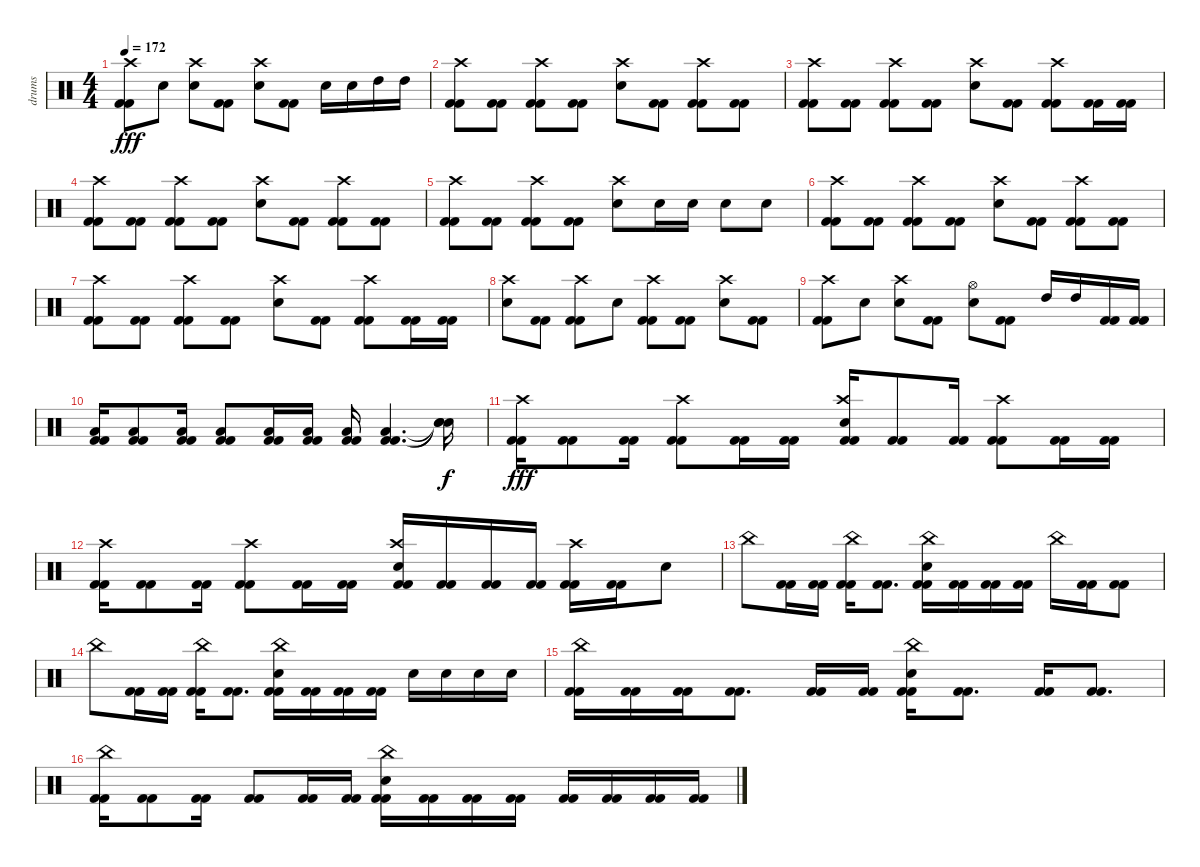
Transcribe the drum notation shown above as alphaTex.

\track ("drums" "drums") {instrument percussion}
\staff {score}
\articulation defaults
\ts (4 4)
\tempo 172
\clef neutral
\ks c
("Kick (hit) 2" "Kick (hit) 2" "Crash high (hit)").8{dy fff} "Electric Snare (hit)".8 ("Electric Snare (hit)" "Crash high (hit)").8 ("Kick (hit) 2" "Kick (hit) 2").8 ("Electric Snare (hit)" "Crash high (hit)").8 ("Kick (hit) 2" "Kick (hit) 2").8 "Electric Snare (hit)".16 "Electric Snare (hit)".16 "High Tom (hit)".16 "High Tom (hit)".16 |
("Kick (hit) 2" "Kick (hit) 2" "Crash high (hit)").8 ("Kick (hit) 2" "Kick (hit) 2").8 ("Kick (hit) 2" "Kick (hit) 2" "Crash high (hit)").8 ("Kick (hit) 2" "Kick (hit) 2").8 ("Electric Snare (hit)" "Crash high (hit)").8 ("Kick (hit) 2" "Kick (hit) 2").8 ("Kick (hit) 2" "Kick (hit) 2" "Crash high (hit)").8 ("Kick (hit) 2" "Kick (hit) 2").8 |
("Kick (hit) 2" "Kick (hit) 2" "Crash high (hit)").8 ("Kick (hit) 2" "Kick (hit) 2").8 ("Kick (hit) 2" "Kick (hit) 2" "Crash high (hit)").8 ("Kick (hit) 2" "Kick (hit) 2").8 ("Electric Snare (hit)" "Crash high (hit)").8 ("Kick (hit) 2" "Kick (hit) 2").8 ("Kick (hit) 2" "Kick (hit) 2" "Crash high (hit)").8 ("Kick (hit) 2" "Kick (hit) 2").16 ("Kick (hit) 2" "Kick (hit) 2").16 |
("Kick (hit) 2" "Kick (hit) 2" "Crash high (hit)").8 ("Kick (hit) 2" "Kick (hit) 2").8 ("Kick (hit) 2" "Kick (hit) 2" "Crash high (hit)").8 ("Kick (hit) 2" "Kick (hit) 2").8 ("Electric Snare (hit)" "Crash high (hit)").8 ("Kick (hit) 2" "Kick (hit) 2").8 ("Kick (hit) 2" "Kick (hit) 2" "Crash high (hit)").8 ("Kick (hit) 2" "Kick (hit) 2").8 |
("Kick (hit) 2" "Kick (hit) 2" "Crash high (hit)").8 ("Kick (hit) 2" "Kick (hit) 2").8 ("Kick (hit) 2" "Kick (hit) 2" "Crash high (hit)").8 ("Kick (hit) 2" "Kick (hit) 2").8 ("Electric Snare (hit)" "Crash high (hit)").8 "Electric Snare (hit)".16 "Electric Snare (hit)".16 "Electric Snare (hit)".8 "Electric Snare (hit)".8 |
("Kick (hit) 2" "Kick (hit) 2" "Crash high (hit)").8 ("Kick (hit) 2" "Kick (hit) 2").8 ("Kick (hit) 2" "Kick (hit) 2" "Crash high (hit)").8 ("Kick (hit) 2" "Kick (hit) 2").8 ("Electric Snare (hit)" "Crash high (hit)").8 ("Kick (hit) 2" "Kick (hit) 2").8 ("Kick (hit) 2" "Kick (hit) 2" "Crash high (hit)").8 ("Kick (hit) 2" "Kick (hit) 2").8 |
("Kick (hit) 2" "Kick (hit) 2" "Crash high (hit)").8 ("Kick (hit) 2" "Kick (hit) 2").8 ("Kick (hit) 2" "Kick (hit) 2" "Crash high (hit)").8 ("Kick (hit) 2" "Kick (hit) 2").8 ("Electric Snare (hit)" "Crash high (hit)").8 ("Kick (hit) 2" "Kick (hit) 2").8 ("Kick (hit) 2" "Kick (hit) 2" "Crash high (hit)").8 ("Kick (hit) 2" "Kick (hit) 2").16 ("Kick (hit) 2" "Kick (hit) 2").16 |
("Electric Snare (hit)" "Crash high (hit)").8 ("Kick (hit) 2" "Kick (hit) 2").8 ("Kick (hit) 2" "Kick (hit) 2" "Crash high (hit)").8 "Electric Snare (hit)".8 ("Kick (hit) 2" "Kick (hit) 2" "Crash high (hit)").8 ("Kick (hit) 2" "Kick (hit) 2").8 ("Electric Snare (hit)" "Crash high (hit)").8 ("Kick (hit) 2" "Kick (hit) 2").8 |
("Kick (hit) 2" "Kick (hit) 2" "Crash high (hit)").8 "Electric Snare (hit)".8 ("Electric Snare (hit)" "Crash high (hit)").8 ("Kick (hit) 2" "Kick (hit) 2").8 ("Electric Snare (hit)" "Hi-Hat (open)").8 ("Kick (hit) 2" "Kick (hit) 2").8 "High Tom (hit)".16 "High Tom (hit)".16 ("Kick (hit) 2" "Kick (hit) 2").16 ("Kick (hit) 2" "Kick (hit) 2").16 |
("Kick (hit) 2" "Kick (hit) 2" "Low Floor Tom (hit)").16 ("Kick (hit) 2" "Kick (hit) 2" "Low Floor Tom (hit)").8 ("Kick (hit) 2" "Kick (hit) 2" "Low Floor Tom (hit)").16 ("Kick (hit) 2" "Kick (hit) 2" "Low Floor Tom (hit)").8 ("Kick (hit) 2" "Kick (hit) 2" "Low Floor Tom (hit)").16 ("Kick (hit) 2" "Kick (hit) 2" "Low Floor Tom (hit)").16 ("Kick (hit) 2" "Kick (hit) 2" "Low Floor Tom (hit)").16 ("Kick (hit) 2" "Kick (hit) 2" "Low Floor Tom (hit)").4{d} ("Snare (hit)"{t} "Snare (hit)"{t} "Snare (hit)"{t}).16{dy f} |
("Kick (hit) 2" "Kick (hit) 2" "Crash high (hit)").16{dy fff} ("Kick (hit) 2" "Kick (hit) 2").8 ("Kick (hit) 2" "Kick (hit) 2").16 ("Kick (hit) 2" "Kick (hit) 2" "Crash high (hit)").8 ("Kick (hit) 2" "Kick (hit) 2").16 ("Kick (hit) 2" "Kick (hit) 2").16 ("Kick (hit) 2" "Kick (hit) 2" "Electric Snare (hit)" "Crash high (hit)").16 ("Kick (hit) 2" "Kick (hit) 2").8 ("Kick (hit) 2" "Kick (hit) 2").16 ("Kick (hit) 2" "Kick (hit) 2" "Crash high (hit)").8 ("Kick (hit) 2" "Kick (hit) 2").16 ("Kick (hit) 2" "Kick (hit) 2").16 |
("Kick (hit) 2" "Kick (hit) 2" "Crash high (hit)").16 ("Kick (hit) 2" "Kick (hit) 2").8 ("Kick (hit) 2" "Kick (hit) 2").16 ("Kick (hit) 2" "Kick (hit) 2" "Crash high (hit)").8 ("Kick (hit) 2" "Kick (hit) 2").16 ("Kick (hit) 2" "Kick (hit) 2").16 ("Kick (hit) 2" "Kick (hit) 2" "Electric Snare (hit)" "Crash high (hit)").16 ("Kick (hit) 2" "Kick (hit) 2").16 ("Kick (hit) 2" "Kick (hit) 2").16 ("Kick (hit) 2" "Kick (hit) 2").16 ("Kick (hit) 2" "Kick (hit) 2" "Crash high (hit)").16 ("Kick (hit) 2" "Kick (hit) 2").16 "Electric Snare (hit)".8 |
"China (hit)".8 ("Kick (hit) 2" "Kick (hit) 2").16 ("Kick (hit) 2" "Kick (hit) 2").16 ("Kick (hit) 2" "Kick (hit) 2" "China (hit)").16 ("Kick (hit) 2" "Kick (hit) 2").8{d} ("Kick (hit) 2" "Kick (hit) 2" "Electric Snare (hit)" "China (hit)").16 ("Kick (hit) 2" "Kick (hit) 2").16 ("Kick (hit) 2" "Kick (hit) 2").16 ("Kick (hit) 2" "Kick (hit) 2").16 "China (hit)".16 ("Kick (hit) 2" "Kick (hit) 2").16 ("Kick (hit) 2" "Kick (hit) 2").8 |
"China (hit)".8 ("Kick (hit) 2" "Kick (hit) 2").16 ("Kick (hit) 2" "Kick (hit) 2").16 ("Kick (hit) 2" "Kick (hit) 2" "China (hit)").16 ("Kick (hit) 2" "Kick (hit) 2").8{d} ("Kick (hit) 2" "Kick (hit) 2" "Electric Snare (hit)" "China (hit)").16 ("Kick (hit) 2" "Kick (hit) 2").16 ("Kick (hit) 2" "Kick (hit) 2").16 ("Kick (hit) 2" "Kick (hit) 2").16 "Electric Snare (hit)".16 "Electric Snare (hit)".16 "Electric Snare (hit)".16 "Electric Snare (hit)".16 |
("Kick (hit) 2" "Kick (hit) 2" "China (hit)").16 ("Kick (hit) 2" "Kick (hit) 2").16 ("Kick (hit) 2" "Kick (hit) 2").16 ("Kick (hit) 2" "Kick (hit) 2").8{d} ("Kick (hit) 2" "Kick (hit) 2").16 ("Kick (hit) 2" "Kick (hit) 2").16 ("Kick (hit) 2" "Kick (hit) 2" "Electric Snare (hit)" "China (hit)").16 ("Kick (hit) 2" "Kick (hit) 2").8{d} ("Kick (hit) 2" "Kick (hit) 2").16 ("Kick (hit) 2" "Kick (hit) 2").8{d} |
("Kick (hit) 2" "Kick (hit) 2" "China (hit)").16 ("Kick (hit) 2" "Kick (hit) 2").8 ("Kick (hit) 2" "Kick (hit) 2").16 ("Kick (hit) 2" "Kick (hit) 2").8 ("Kick (hit) 2" "Kick (hit) 2").16 ("Kick (hit) 2" "Kick (hit) 2").16 ("Kick (hit) 2" "Kick (hit) 2" "Electric Snare (hit)" "China (hit)").16 ("Kick (hit) 2" "Kick (hit) 2").16 ("Kick (hit) 2" "Kick (hit) 2").16 ("Kick (hit) 2" "Kick (hit) 2").16 ("Kick (hit) 2" "Kick (hit) 2").16 ("Kick (hit) 2" "Kick (hit) 2").16 ("Kick (hit) 2" "Kick (hit) 2").16 ("Kick (hit) 2" "Kick (hit) 2").16
